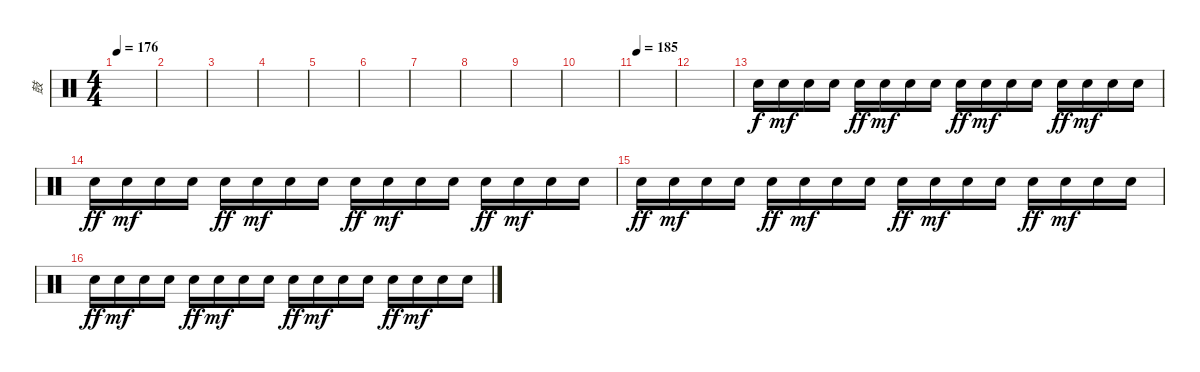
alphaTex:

\track ("鼓" "鼓") {instrument percussion}
\staff {score}
\articulation defaults
\ts (4 4)
\tempo 176
\clef neutral
\ks c
|
|
|
|
|
|
|
|
|
|
\tempo 185
|
|
"Snare (hit) 2".16 "Snare (hit) 2".16{dy mf} "Snare (hit) 2".16 "Snare (hit) 2".16 "Snare (hit) 2".16{dy ff} "Snare (hit) 2".16{dy mf} "Snare (hit) 2".16 "Snare (hit) 2".16 "Snare (hit) 2".16{dy ff} "Snare (hit) 2".16{dy mf} "Snare (hit) 2".16 "Snare (hit) 2".16 "Snare (hit) 2".16{dy ff} "Snare (hit) 2".16{dy mf} "Snare (hit) 2".16 "Snare (hit) 2".16 |
"Snare (hit) 2".16{dy ff} "Snare (hit) 2".16{dy mf} "Snare (hit) 2".16 "Snare (hit) 2".16 "Snare (hit) 2".16{dy ff} "Snare (hit) 2".16{dy mf} "Snare (hit) 2".16 "Snare (hit) 2".16 "Snare (hit) 2".16{dy ff} "Snare (hit) 2".16{dy mf} "Snare (hit) 2".16 "Snare (hit) 2".16 "Snare (hit) 2".16{dy ff} "Snare (hit) 2".16{dy mf} "Snare (hit) 2".16 "Snare (hit) 2".16 |
"Snare (hit) 2".16{dy ff} "Snare (hit) 2".16{dy mf} "Snare (hit) 2".16 "Snare (hit) 2".16 "Snare (hit) 2".16{dy ff} "Snare (hit) 2".16{dy mf} "Snare (hit) 2".16 "Snare (hit) 2".16 "Snare (hit) 2".16{dy ff} "Snare (hit) 2".16{dy mf} "Snare (hit) 2".16 "Snare (hit) 2".16 "Snare (hit) 2".16{dy ff} "Snare (hit) 2".16{dy mf} "Snare (hit) 2".16 "Snare (hit) 2".16 |
"Snare (hit) 2".16{dy ff} "Snare (hit) 2".16{dy mf} "Snare (hit) 2".16 "Snare (hit) 2".16 "Snare (hit) 2".16{dy ff} "Snare (hit) 2".16{dy mf} "Snare (hit) 2".16 "Snare (hit) 2".16 "Snare (hit) 2".16{dy ff} "Snare (hit) 2".16{dy mf} "Snare (hit) 2".16 "Snare (hit) 2".16 "Snare (hit) 2".16{dy ff} "Snare (hit) 2".16{dy mf} "Snare (hit) 2".16 "Snare (hit) 2".16
